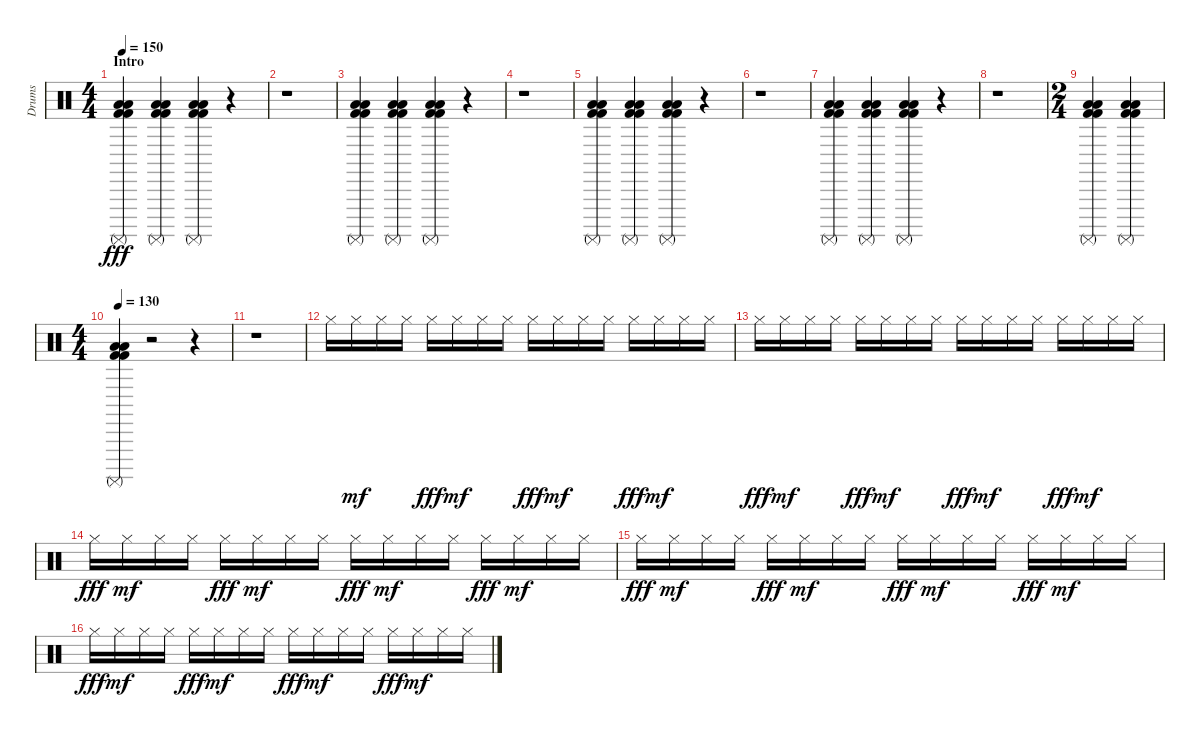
\track ("Drums" "Drums") {instrument percussion}
\staff {score}
\articulation defaults
\ts (4 4)
\section ("" "Intro")
\tempo 150
\clef neutral
\ks c
("Surdo (mute)" "Low Tom (hit)" "Low Tom (hit)" "Kick (hit) 2" "Kick (hit) 2").4{dy fff} ("Surdo (mute)" "Low Tom (hit)" "Low Tom (hit)" "Kick (hit) 2" "Kick (hit) 2").4 ("Surdo (mute)" "Low Tom (hit)" "Low Tom (hit)" "Kick (hit) 2" "Kick (hit) 2").4 r.4 |
r.1 |
("Surdo (mute)" "Low Tom (hit)" "Low Tom (hit)" "Kick (hit) 2" "Kick (hit) 2").4 ("Surdo (mute)" "Low Tom (hit)" "Low Tom (hit)" "Kick (hit) 2" "Kick (hit) 2").4 ("Surdo (mute)" "Low Tom (hit)" "Low Tom (hit)" "Kick (hit) 2" "Kick (hit) 2").4 r.4 |
r.1 |
("Surdo (mute)" "Low Tom (hit)" "Low Tom (hit)" "Kick (hit) 2" "Kick (hit) 2").4 ("Surdo (mute)" "Low Tom (hit)" "Low Tom (hit)" "Kick (hit) 2" "Kick (hit) 2").4 ("Surdo (mute)" "Low Tom (hit)" "Low Tom (hit)" "Kick (hit) 2" "Kick (hit) 2").4 r.4 |
r.1 |
("Surdo (mute)" "Low Tom (hit)" "Low Tom (hit)" "Kick (hit) 2" "Kick (hit) 2").4 ("Surdo (mute)" "Low Tom (hit)" "Low Tom (hit)" "Kick (hit) 2" "Kick (hit) 2").4 ("Surdo (mute)" "Low Tom (hit)" "Low Tom (hit)" "Kick (hit) 2" "Kick (hit) 2").4 r.4 |
r.1 |
\ts (2 4)
("Surdo (mute)" "Low Tom (hit)" "Low Tom (hit)" "Kick (hit) 2" "Kick (hit) 2").4 ("Surdo (mute)" "Low Tom (hit)" "Low Tom (hit)" "Kick (hit) 2" "Kick (hit) 2").4 |
\ts (4 4)
\tempo 130
("Surdo (mute)" "Low Tom (hit)" "Low Tom (hit)" "Kick (hit) 2" "Kick (hit) 2").4 r.2 r.4 |
r.1 |
"Hi-Hat (closed)".16 "Hi-Hat (closed)".16{dy mf} "Hi-Hat (closed)".16 "Hi-Hat (closed)".16 "Hi-Hat (closed)".16{dy fff} "Hi-Hat (closed)".16{dy mf} "Hi-Hat (closed)".16 "Hi-Hat (closed)".16 "Hi-Hat (closed)".16{dy fff} "Hi-Hat (closed)".16{dy mf} "Hi-Hat (closed)".16 "Hi-Hat (closed)".16 "Hi-Hat (closed)".16{dy fff} "Hi-Hat (closed)".16{dy mf} "Hi-Hat (closed)".16 "Hi-Hat (closed)".16 |
"Hi-Hat (closed)".16{dy fff} "Hi-Hat (closed)".16{dy mf} "Hi-Hat (closed)".16 "Hi-Hat (closed)".16 "Hi-Hat (closed)".16{dy fff} "Hi-Hat (closed)".16{dy mf} "Hi-Hat (closed)".16 "Hi-Hat (closed)".16 "Hi-Hat (closed)".16{dy fff} "Hi-Hat (closed)".16{dy mf} "Hi-Hat (closed)".16 "Hi-Hat (closed)".16 "Hi-Hat (closed)".16{dy fff} "Hi-Hat (closed)".16{dy mf} "Hi-Hat (closed)".16 "Hi-Hat (closed)".16 |
"Hi-Hat (closed)".16{dy fff} "Hi-Hat (closed)".16{dy mf} "Hi-Hat (closed)".16 "Hi-Hat (closed)".16 "Hi-Hat (closed)".16{dy fff} "Hi-Hat (closed)".16{dy mf} "Hi-Hat (closed)".16 "Hi-Hat (closed)".16 "Hi-Hat (closed)".16{dy fff} "Hi-Hat (closed)".16{dy mf} "Hi-Hat (closed)".16 "Hi-Hat (closed)".16 "Hi-Hat (closed)".16{dy fff} "Hi-Hat (closed)".16{dy mf} "Hi-Hat (closed)".16 "Hi-Hat (closed)".16 |
"Hi-Hat (closed)".16{dy fff} "Hi-Hat (closed)".16{dy mf} "Hi-Hat (closed)".16 "Hi-Hat (closed)".16 "Hi-Hat (closed)".16{dy fff} "Hi-Hat (closed)".16{dy mf} "Hi-Hat (closed)".16 "Hi-Hat (closed)".16 "Hi-Hat (closed)".16{dy fff} "Hi-Hat (closed)".16{dy mf} "Hi-Hat (closed)".16 "Hi-Hat (closed)".16 "Hi-Hat (closed)".16{dy fff} "Hi-Hat (closed)".16{dy mf} "Hi-Hat (closed)".16 "Hi-Hat (closed)".16 |
"Hi-Hat (closed)".16{dy fff} "Hi-Hat (closed)".16{dy mf} "Hi-Hat (closed)".16 "Hi-Hat (closed)".16 "Hi-Hat (closed)".16{dy fff} "Hi-Hat (closed)".16{dy mf} "Hi-Hat (closed)".16 "Hi-Hat (closed)".16 "Hi-Hat (closed)".16{dy fff} "Hi-Hat (closed)".16{dy mf} "Hi-Hat (closed)".16 "Hi-Hat (closed)".16 "Hi-Hat (closed)".16{dy fff} "Hi-Hat (closed)".16{dy mf} "Hi-Hat (closed)".16 "Hi-Hat (closed)".16
